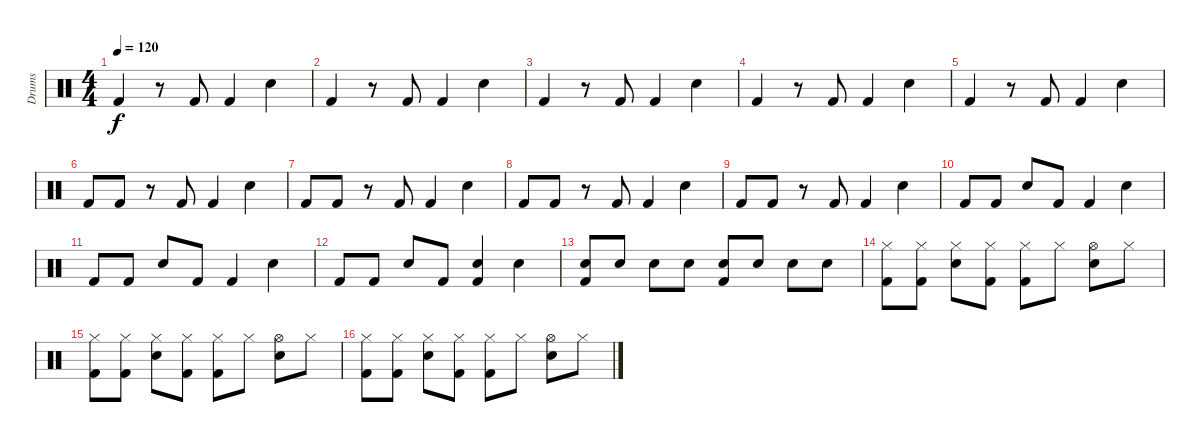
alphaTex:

\track ("Drums " "Drums ") {instrument percussion}
\staff {score}
\articulation defaults
\ts (4 4)
\tempo 120
\clef neutral
\ks c "Kick (hit) 2".4{dy f}
r.8 "Kick (hit) 2".8 "Kick (hit) 2".4 "Electric Snare (hit)".4 |
"Kick (hit) 2".4 r.8 "Kick (hit) 2".8 "Kick (hit) 2".4 "Electric Snare (hit)".4 |
"Kick (hit) 2".4 r.8 "Kick (hit) 2".8 "Kick (hit) 2".4 "Electric Snare (hit)".4 |
"Kick (hit) 2".4 r.8 "Kick (hit) 2".8 "Kick (hit) 2".4 "Electric Snare (hit)".4 |
"Kick (hit) 2".4 r.8 "Kick (hit) 2".8 "Kick (hit) 2".4 "Electric Snare (hit)".4 |
"Kick (hit) 2".8 "Kick (hit) 2".8 r.8 "Kick (hit) 2".8 "Kick (hit) 2".4 "Electric Snare (hit)".4 |
"Kick (hit) 2".8 "Kick (hit) 2".8 r.8 "Kick (hit) 2".8 "Kick (hit) 2".4 "Electric Snare (hit)".4 |
"Kick (hit) 2".8 "Kick (hit) 2".8 r.8 "Kick (hit) 2".8 "Kick (hit) 2".4 "Electric Snare (hit)".4 |
"Kick (hit) 2".8 "Kick (hit) 2".8 r.8 "Kick (hit) 2".8 "Kick (hit) 2".4 "Electric Snare (hit)".4 |
"Kick (hit) 2".8 "Kick (hit) 2".8 "Electric Snare (hit)".8 "Kick (hit) 2".8 "Kick (hit) 2".4 "Electric Snare (hit)".4 |
"Kick (hit) 2".8 "Kick (hit) 2".8 "Electric Snare (hit)".8 "Kick (hit) 2".8 "Kick (hit) 2".4 "Electric Snare (hit)".4 |
"Kick (hit) 2".8 "Kick (hit) 2".8 "Electric Snare (hit)".8 "Kick (hit) 2".8 ("Electric Snare (hit)" "Kick (hit) 2").4 "Electric Snare (hit)".4 |
("Electric Snare (hit)" "Kick (hit) 2").8 "Electric Snare (hit)".8 "Electric Snare (hit)".8 "Electric Snare (hit)".8 ("Electric Snare (hit)" "Kick (hit) 2").8 "Electric Snare (hit)".8 "Electric Snare (hit)".8 "Electric Snare (hit)".8 |
("Kick (hit) 2" "Hi-Hat (closed)").8 ("Kick (hit) 2" "Hi-Hat (closed)").8 ("Electric Snare (hit)" "Hi-Hat (closed)").8 ("Kick (hit) 2" "Hi-Hat (closed)").8 ("Kick (hit) 2" "Hi-Hat (closed)").8 "Hi-Hat (closed)".8 ("Electric Snare (hit)" "Hi-Hat (open)").8 "Hi-Hat (closed)".8 |
("Kick (hit) 2" "Hi-Hat (closed)").8 ("Kick (hit) 2" "Hi-Hat (closed)").8 ("Electric Snare (hit)" "Hi-Hat (closed)").8 ("Kick (hit) 2" "Hi-Hat (closed)").8 ("Kick (hit) 2" "Hi-Hat (closed)").8 "Hi-Hat (closed)".8 ("Electric Snare (hit)" "Hi-Hat (open)").8 "Hi-Hat (closed)".8 |
("Kick (hit) 2" "Hi-Hat (closed)").8 ("Kick (hit) 2" "Hi-Hat (closed)").8 ("Electric Snare (hit)" "Hi-Hat (closed)").8 ("Kick (hit) 2" "Hi-Hat (closed)").8 ("Kick (hit) 2" "Hi-Hat (closed)").8 "Hi-Hat (closed)".8 ("Electric Snare (hit)" "Hi-Hat (open)").8 "Hi-Hat (closed)".8
